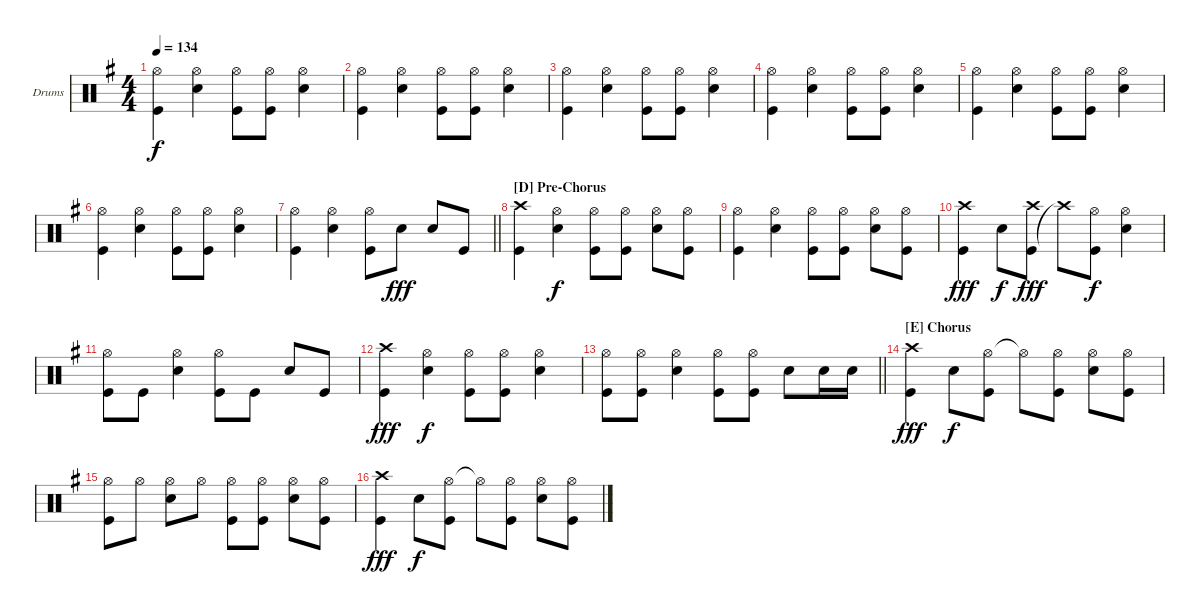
\defaultSystemsLayout 4
\bracketExtendMode groupsimilarinstruments
\firstSystemTrackNameOrientation horizontal
\otherSystemsTrackNameOrientation horizontal
\track ("Bobby Blotzer" "Drums") {instrument percussion}
\staff {score}
\articulation defaults
\ts (4 4)
\tempo 134
\clef neutral
\ks g
("Kick (hit)" "Hi-Hat (open)").4{dy f} ("Hi-Hat (open)" "Snare (hit) 2").4 ("Hi-Hat (open)" "Kick (hit)").8 ("Hi-Hat (open)" "Kick (hit)").8 ("Snare (hit) 2" "Hi-Hat (open)").4 |
("Kick (hit)" "Hi-Hat (open)").4 ("Hi-Hat (open)" "Snare (hit) 2").4 ("Hi-Hat (open)" "Kick (hit)").8 ("Hi-Hat (open)" "Kick (hit)").8 ("Snare (hit) 2" "Hi-Hat (open)").4 |
("Kick (hit)" "Hi-Hat (open)").4 ("Hi-Hat (open)" "Snare (hit) 2").4 ("Hi-Hat (open)" "Kick (hit)").8 ("Hi-Hat (open)" "Kick (hit)").8 ("Snare (hit) 2" "Hi-Hat (open)").4 |
("Kick (hit)" "Hi-Hat (open)").4 ("Hi-Hat (open)" "Snare (hit) 2").4 ("Hi-Hat (open)" "Kick (hit)").8 ("Hi-Hat (open)" "Kick (hit)").8 ("Snare (hit) 2" "Hi-Hat (open)").4 |
("Kick (hit)" "Hi-Hat (open)").4 ("Hi-Hat (open)" "Snare (hit) 2").4 ("Hi-Hat (open)" "Kick (hit)").8 ("Hi-Hat (open)" "Kick (hit)").8 ("Snare (hit) 2" "Hi-Hat (open)").4 |
("Kick (hit)" "Hi-Hat (open)").4 ("Hi-Hat (open)" "Snare (hit) 2").4 ("Hi-Hat (open)" "Kick (hit)").8 ("Hi-Hat (open)" "Kick (hit)").8 ("Snare (hit) 2" "Hi-Hat (open)").4 |
\barLineRight lightlight
("Kick (hit)" "Hi-Hat (open)").4 ("Hi-Hat (open)" "Snare (hit) 2").4 ("Hi-Hat (open)" "Kick (hit)").8 "Snare (hit) 2".8{dy fff} "Snare (hit) 2".8 "Kick (hit)".8 |
\section ("D" "Pre-Chorus")
("Kick (hit)" "Crash high (hit)").4 ("Hi-Hat (open)" "Snare (hit) 2").4{dy f} ("Kick (hit)" "Hi-Hat (open)").8 ("Kick (hit)" "Hi-Hat (open)").8 ("Snare (hit) 2" "Hi-Hat (open)").8 ("Kick (hit)" "Hi-Hat (open)").8 |
("Kick (hit)" "Hi-Hat (open)").4 ("Hi-Hat (open)" "Snare (hit) 2").4 ("Kick (hit)" "Hi-Hat (open)").8 ("Kick (hit)" "Hi-Hat (open)").8 ("Snare (hit) 2" "Hi-Hat (open)").8 ("Kick (hit)" "Hi-Hat (open)").8 |
("Kick (hit)" "Crash high (hit)").4{dy fff} "Snare (hit) 2".8{dy f} ("Kick (hit)" "Crash high (hit)").8{dy fff} "Crash high (hit)"{t}.8 ("Hi-Hat (open)" "Kick (hit)").8{dy f} ("Snare (hit) 2" "Hi-Hat (open)").4 |
("Kick (hit)" "Hi-Hat (open)").8 "Kick (hit)".8 ("Snare (hit) 2" "Hi-Hat (open)").4 ("Kick (hit)" "Hi-Hat (open)").8 "Kick (hit)".8 "Snare (hit) 2".8 "Kick (hit)".8 |
("Kick (hit)" "Crash high (hit)").4{dy fff} ("Hi-Hat (open)" "Snare (hit) 2").4{dy f} ("Kick (hit)" "Hi-Hat (open)").8 ("Kick (hit)" "Hi-Hat (open)").8 ("Snare (hit) 2" "Hi-Hat (open)").4 |
\barLineRight lightlight
("Kick (hit)" "Hi-Hat (open)").8 ("Kick (hit)" "Hi-Hat (open)").8 ("Snare (hit) 2" "Hi-Hat (open)").4 ("Kick (hit)" "Hi-Hat (open)").8 ("Kick (hit)" "Hi-Hat (open)").8 "Snare (hit) 2".8 "Snare (hit) 2".16 "Snare (hit) 2".16 |
\section ("E" "Chorus")
("Crash high (hit)" "Kick (hit)").4{dy fff} "Snare (hit) 2".8{dy f} ("Hi-Hat (open)" "Kick (hit)").8 "Hi-Hat (open)"{t}.8 ("Kick (hit)" "Hi-Hat (open)").8 ("Snare (hit) 2" "Hi-Hat (open)").8 ("Kick (hit)" "Hi-Hat (open)").8 |
("Hi-Hat (open)" "Kick (hit)").8 "Hi-Hat (open)".8 ("Hi-Hat (open)" "Snare (hit) 2").8 "Hi-Hat (open)".8 ("Hi-Hat (open)" "Kick (hit)").8 ("Hi-Hat (open)" "Kick (hit)").8 ("Hi-Hat (open)" "Snare (hit) 2").8 ("Hi-Hat (open)" "Kick (hit)").8 |
("Crash high (hit)" "Kick (hit)").4{dy fff} "Snare (hit) 2".8{dy f} ("Hi-Hat (open)" "Kick (hit)").8 "Hi-Hat (open)"{t}.8 ("Kick (hit)" "Hi-Hat (open)").8 ("Snare (hit) 2" "Hi-Hat (open)").8 ("Kick (hit)" "Hi-Hat (open)").8
